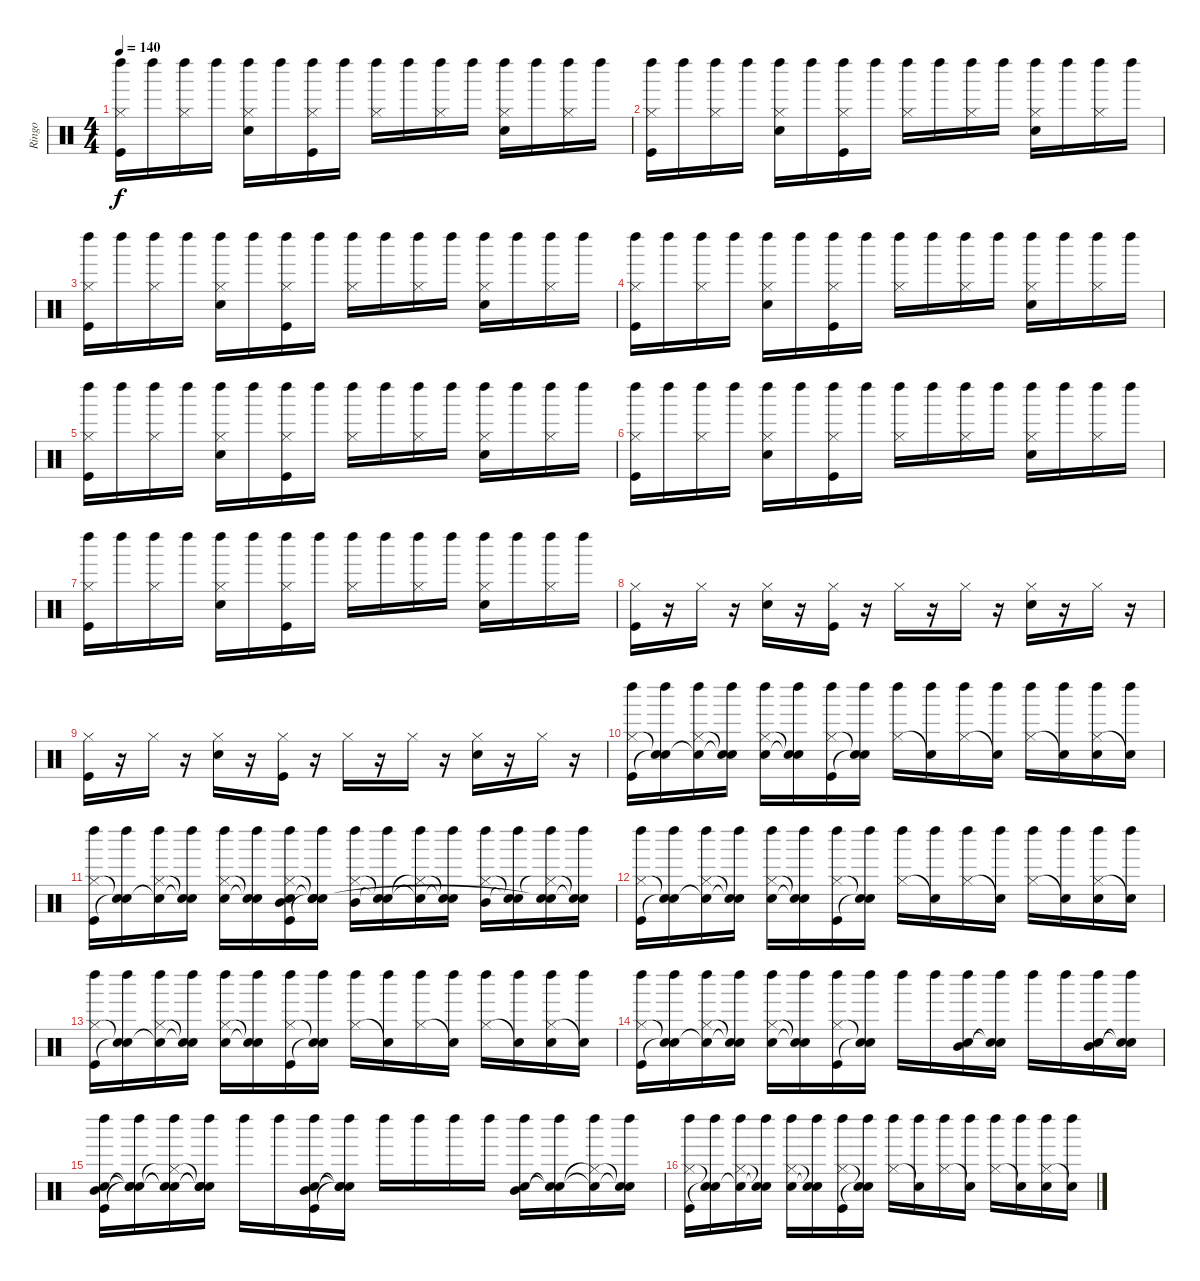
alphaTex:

\track ("Ringo" "Ringo") {instrument percussion}
\staff {score}
\articulation defaults
\ts (4 4)
\tempo 140
\clef neutral
\ks c
("Left Maraca (hit)" "Hi-Hat (closed)" "Kick (hit)").16{dy f} "Left Maraca (hit)".16 ("Left Maraca (hit)" "Hi-Hat (closed)").16 "Left Maraca (hit)".16 ("Left Maraca (hit)" "Hi-Hat (closed)" "Snare (hit) 2").16 "Left Maraca (hit)".16 ("Left Maraca (hit)" "Hi-Hat (closed)" "Kick (hit)").16 "Left Maraca (hit)".16 ("Left Maraca (hit)" "Hi-Hat (closed)").16 "Left Maraca (hit)".16 ("Left Maraca (hit)" "Hi-Hat (closed)").16 "Left Maraca (hit)".16 ("Left Maraca (hit)" "Hi-Hat (closed)" "Snare (hit) 2").16 "Left Maraca (hit)".16 ("Left Maraca (hit)" "Hi-Hat (closed)").16 "Left Maraca (hit)".16 |
("Left Maraca (hit)" "Hi-Hat (closed)" "Kick (hit)").16 "Left Maraca (hit)".16 ("Left Maraca (hit)" "Hi-Hat (closed)").16 "Left Maraca (hit)".16 ("Left Maraca (hit)" "Hi-Hat (closed)" "Snare (hit) 2").16 "Left Maraca (hit)".16 ("Left Maraca (hit)" "Hi-Hat (closed)" "Kick (hit)").16 "Left Maraca (hit)".16 ("Left Maraca (hit)" "Hi-Hat (closed)").16 "Left Maraca (hit)".16 ("Left Maraca (hit)" "Hi-Hat (closed)").16 "Left Maraca (hit)".16 ("Left Maraca (hit)" "Hi-Hat (closed)" "Snare (hit) 2").16 "Left Maraca (hit)".16 ("Left Maraca (hit)" "Hi-Hat (closed)").16 "Left Maraca (hit)".16 |
("Left Maraca (hit)" "Hi-Hat (closed)" "Kick (hit)").16 "Left Maraca (hit)".16 ("Left Maraca (hit)" "Hi-Hat (closed)").16 "Left Maraca (hit)".16 ("Left Maraca (hit)" "Hi-Hat (closed)" "Snare (hit) 2").16 "Left Maraca (hit)".16 ("Left Maraca (hit)" "Hi-Hat (closed)" "Kick (hit)").16 "Left Maraca (hit)".16 ("Left Maraca (hit)" "Hi-Hat (closed)").16 "Left Maraca (hit)".16 ("Left Maraca (hit)" "Hi-Hat (closed)").16 "Left Maraca (hit)".16 ("Left Maraca (hit)" "Hi-Hat (closed)" "Snare (hit) 2").16 "Left Maraca (hit)".16 ("Left Maraca (hit)" "Hi-Hat (closed)").16 "Left Maraca (hit)".16 |
("Left Maraca (hit)" "Hi-Hat (closed)" "Kick (hit)").16 "Left Maraca (hit)".16 ("Left Maraca (hit)" "Hi-Hat (closed)").16 "Left Maraca (hit)".16 ("Left Maraca (hit)" "Hi-Hat (closed)" "Snare (hit) 2").16 "Left Maraca (hit)".16 ("Left Maraca (hit)" "Hi-Hat (closed)" "Kick (hit)").16 "Left Maraca (hit)".16 ("Left Maraca (hit)" "Hi-Hat (closed)").16 "Left Maraca (hit)".16 ("Left Maraca (hit)" "Hi-Hat (closed)").16 "Left Maraca (hit)".16 ("Left Maraca (hit)" "Hi-Hat (closed)" "Snare (hit) 2").16 "Left Maraca (hit)".16 ("Left Maraca (hit)" "Hi-Hat (closed)").16 "Left Maraca (hit)".16 |
("Left Maraca (hit)" "Hi-Hat (closed)" "Kick (hit)").16 "Left Maraca (hit)".16 ("Left Maraca (hit)" "Hi-Hat (closed)").16 "Left Maraca (hit)".16 ("Left Maraca (hit)" "Hi-Hat (closed)" "Snare (hit) 2").16 "Left Maraca (hit)".16 ("Left Maraca (hit)" "Hi-Hat (closed)" "Kick (hit)").16 "Left Maraca (hit)".16 ("Left Maraca (hit)" "Hi-Hat (closed)").16 "Left Maraca (hit)".16 ("Left Maraca (hit)" "Hi-Hat (closed)").16 "Left Maraca (hit)".16 ("Left Maraca (hit)" "Hi-Hat (closed)" "Snare (hit) 2").16 "Left Maraca (hit)".16 ("Left Maraca (hit)" "Hi-Hat (closed)").16 "Left Maraca (hit)".16 |
("Left Maraca (hit)" "Hi-Hat (closed)" "Kick (hit)").16 "Left Maraca (hit)".16 ("Left Maraca (hit)" "Hi-Hat (closed)").16 "Left Maraca (hit)".16 ("Left Maraca (hit)" "Hi-Hat (closed)" "Snare (hit) 2").16 "Left Maraca (hit)".16 ("Left Maraca (hit)" "Hi-Hat (closed)" "Kick (hit)").16 "Left Maraca (hit)".16 ("Left Maraca (hit)" "Hi-Hat (closed)").16 "Left Maraca (hit)".16 ("Left Maraca (hit)" "Hi-Hat (closed)").16 "Left Maraca (hit)".16 ("Left Maraca (hit)" "Hi-Hat (closed)" "Snare (hit) 2").16 "Left Maraca (hit)".16 ("Left Maraca (hit)" "Hi-Hat (closed)").16 "Left Maraca (hit)".16 |
("Left Maraca (hit)" "Hi-Hat (closed)" "Kick (hit)").16 "Left Maraca (hit)".16 ("Left Maraca (hit)" "Hi-Hat (closed)").16 "Left Maraca (hit)".16 ("Left Maraca (hit)" "Hi-Hat (closed)" "Snare (hit) 2").16 "Left Maraca (hit)".16 ("Left Maraca (hit)" "Hi-Hat (closed)" "Kick (hit)").16 "Left Maraca (hit)".16 ("Left Maraca (hit)" "Hi-Hat (closed)").16 "Left Maraca (hit)".16 ("Left Maraca (hit)" "Hi-Hat (closed)").16 "Left Maraca (hit)".16 ("Left Maraca (hit)" "Hi-Hat (closed)" "Snare (hit) 2").16 "Left Maraca (hit)".16 ("Left Maraca (hit)" "Hi-Hat (closed)").16 "Left Maraca (hit)".16 |
("Hi-Hat (closed)" "Kick (hit)").16 r.16 "Hi-Hat (closed)".16 r.16 ("Hi-Hat (closed)" "Snare (hit) 2").16 r.16 ("Hi-Hat (closed)" "Kick (hit)").16 r.16 "Hi-Hat (closed)".16 r.16 "Hi-Hat (closed)".16 r.16 ("Hi-Hat (closed)" "Snare (hit) 2").16 r.16 "Hi-Hat (closed)".16 r.16 |
("Hi-Hat (closed)" "Kick (hit)").16 r.16 "Hi-Hat (closed)".16 r.16 ("Hi-Hat (closed)" "Snare (hit) 2").16 r.16 ("Hi-Hat (closed)" "Kick (hit)").16 r.16 "Hi-Hat (closed)".16 r.16 "Hi-Hat (closed)".16 r.16 ("Hi-Hat (closed)" "Snare (hit) 2").16 r.16 "Hi-Hat (closed)".16 r.16 |
("Left Maraca (hit)" "Hi-Hat (closed)" "Kick (hit)").16 ("Left Maraca (hit)" "Snare (hit)"{t} "Snare (hit)"{t}).16 ("Left Maraca (hit)" "Hi-Hat (closed)" "Snare (hit)"{t}).16 ("Left Maraca (hit)" "Snare (hit)"{t} "Snare (hit)"{t}).16 ("Left Maraca (hit)" "Hi-Hat (closed)" "Snare (hit) 2").16 ("Left Maraca (hit)" "Snare (hit)"{t} "Snare (hit)"{t}).16 ("Left Maraca (hit)" "Hi-Hat (closed)" "Kick (hit)").16 ("Left Maraca (hit)" "Snare (hit)"{t} "Snare (hit)"{t}).16 ("Left Maraca (hit)" "Hi-Hat (closed)").16 ("Left Maraca (hit)" "Snare (hit)"{t}).16 ("Left Maraca (hit)" "Hi-Hat (closed)").16 ("Left Maraca (hit)" "Snare (hit)"{t}).16 ("Left Maraca (hit)" "Hi-Hat (closed)").16 ("Left Maraca (hit)" "Snare (hit)"{t}).16 ("Left Maraca (hit)" "Hi-Hat (closed)" "Snare (hit) 2").16 ("Left Maraca (hit)" "Snare (hit)"{t}).16 |
("Left Maraca (hit)" "Hi-Hat (closed)" "Kick (hit)").16 ("Left Maraca (hit)" "Snare (hit)"{t} "Snare (hit)"{t}).16 ("Left Maraca (hit)" "Hi-Hat (closed)" "Snare (hit)"{t}).16 ("Left Maraca (hit)" "Snare (hit)"{t} "Snare (hit)"{t}).16 ("Left Maraca (hit)" "Hi-Hat (closed)" "Snare (hit) 2").16 ("Left Maraca (hit)" "Snare (hit)"{t} "Snare (hit)"{t}).16 ("Left Maraca (hit)" "Hi-Hat (closed)" "Snare (hit) 2" "Kick (hit)" "Mid Tom (hit)").16 ("Left Maraca (hit)" "Snare (hit)"{t} "Snare (hit)"{t} "Snare (hit)"{t}).16 ("Left Maraca (hit)" "Hi-Hat (closed)" "Mid Tom (hit)").16 ("Left Maraca (hit)" "Snare (hit)"{t} "Snare (hit)"{t}).16 ("Left Maraca (hit)" "Hi-Hat (closed)"{t} "Snare (hit)"{t}).16 ("Left Maraca (hit)" "Snare (hit)"{t} "Snare (hit)"{t}).16 ("Left Maraca (hit)" "Hi-Hat (closed)" "Mid Tom (hit)").16 ("Left Maraca (hit)" "Snare (hit)"{t} "Snare (hit)"{t}).16 ("Left Maraca (hit)" "Hi-Hat (closed)"{t} "Snare (hit) 2" "Snare (hit)"{t}).16 ("Left Maraca (hit)" "Snare (hit)"{t} "Snare (hit)"{t}).16 |
("Left Maraca (hit)" "Hi-Hat (closed)" "Kick (hit)").16 ("Left Maraca (hit)" "Snare (hit)"{t} "Snare (hit)"{t}).16 ("Left Maraca (hit)" "Hi-Hat (closed)" "Snare (hit)"{t}).16 ("Left Maraca (hit)" "Snare (hit)"{t} "Snare (hit)"{t}).16 ("Left Maraca (hit)" "Hi-Hat (closed)" "Snare (hit) 2").16 ("Left Maraca (hit)" "Snare (hit)"{t} "Snare (hit)"{t}).16 ("Left Maraca (hit)" "Hi-Hat (closed)" "Kick (hit)").16 ("Left Maraca (hit)" "Snare (hit)"{t} "Snare (hit)"{t}).16 ("Left Maraca (hit)" "Hi-Hat (closed)").16 ("Left Maraca (hit)" "Snare (hit)"{t}).16 ("Left Maraca (hit)" "Hi-Hat (closed)").16 ("Left Maraca (hit)" "Snare (hit)"{t}).16 ("Left Maraca (hit)" "Hi-Hat (closed)").16 ("Left Maraca (hit)" "Snare (hit)"{t}).16 ("Left Maraca (hit)" "Hi-Hat (closed)" "Snare (hit) 2").16 ("Left Maraca (hit)" "Snare (hit)"{t}).16 |
("Left Maraca (hit)" "Hi-Hat (closed)" "Kick (hit)").16 ("Left Maraca (hit)" "Snare (hit)"{t} "Snare (hit)"{t}).16 ("Left Maraca (hit)" "Hi-Hat (closed)" "Snare (hit)"{t}).16 ("Left Maraca (hit)" "Snare (hit)"{t} "Snare (hit)"{t}).16 ("Left Maraca (hit)" "Hi-Hat (closed)" "Snare (hit) 2").16 ("Left Maraca (hit)" "Snare (hit)"{t} "Snare (hit)"{t}).16 ("Left Maraca (hit)" "Hi-Hat (closed)" "Kick (hit)").16 ("Left Maraca (hit)" "Snare (hit)"{t} "Snare (hit)"{t}).16 ("Left Maraca (hit)" "Hi-Hat (closed)").16 ("Left Maraca (hit)" "Snare (hit)"{t}).16 ("Left Maraca (hit)" "Hi-Hat (closed)").16 ("Left Maraca (hit)" "Snare (hit)"{t}).16 ("Left Maraca (hit)" "Hi-Hat (closed)").16 ("Left Maraca (hit)" "Snare (hit)"{t}).16 ("Left Maraca (hit)" "Hi-Hat (closed)" "Snare (hit) 2").16 ("Left Maraca (hit)" "Snare (hit)"{t}).16 |
("Left Maraca (hit)" "Hi-Hat (closed)" "Kick (hit)").16 ("Left Maraca (hit)" "Snare (hit)"{t} "Snare (hit)"{t}).16 ("Left Maraca (hit)" "Hi-Hat (closed)" "Snare (hit)"{t}).16 ("Left Maraca (hit)" "Snare (hit)"{t} "Snare (hit)"{t}).16 ("Left Maraca (hit)" "Hi-Hat (closed)" "Snare (hit) 2").16 ("Left Maraca (hit)" "Snare (hit)"{t} "Snare (hit)"{t}).16 ("Left Maraca (hit)" "Hi-Hat (closed)" "Kick (hit)").16 ("Left Maraca (hit)" "Snare (hit)"{t} "Snare (hit)"{t}).16 "Left Maraca (hit)".16 "Left Maraca (hit)".16 ("Left Maraca (hit)" "Mid Tom (hit)" "Snare (hit) 2").16 ("Left Maraca (hit)" "Snare (hit)"{t} "Snare (hit)"{t}).16 "Left Maraca (hit)".16 "Left Maraca (hit)".16 ("Left Maraca (hit)" "Mid Tom (hit)" "Snare (hit) 2").16 ("Left Maraca (hit)" "Snare (hit)"{t} "Snare (hit)"{t}).16 |
("Left Maraca (hit)" "Mid Tom (hit)" "Snare (hit) 2" "Kick (hit)").16 ("Left Maraca (hit)" "Snare (hit)"{t} "Snare (hit)"{t} "Snare (hit)"{t}).16 ("Left Maraca (hit)" "Hi-Hat (closed)"{t} "Snare (hit)"{t} "Snare (hit)"{t}).16 ("Left Maraca (hit)" "Snare (hit)"{t} "Snare (hit)"{t} "Snare (hit)"{t}).16 "Left Maraca (hit)".16 "Left Maraca (hit)".16 ("Left Maraca (hit)" "Mid Tom (hit)" "Snare (hit) 2" "Kick (hit)").16 ("Left Maraca (hit)" "Snare (hit)"{t} "Snare (hit)"{t} "Snare (hit)"{t}).16 "Left Maraca (hit)".16 "Left Maraca (hit)".16 "Left Maraca (hit)".16 "Left Maraca (hit)".16 ("Left Maraca (hit)" "Mid Tom (hit)" "Snare (hit) 2").16 ("Left Maraca (hit)" "Snare (hit)"{t} "Snare (hit)"{t}).16 ("Left Maraca (hit)" "Hi-Hat (closed)"{t} "Snare (hit) 2"{t}).16 ("Left Maraca (hit)" "Snare (hit)"{t} "Snare (hit)"{t}).16 |
("Left Maraca (hit)" "Hi-Hat (closed)" "Kick (hit)").16 ("Left Maraca (hit)" "Snare (hit)"{t} "Snare (hit)"{t}).16 ("Left Maraca (hit)" "Hi-Hat (closed)" "Snare (hit)"{t}).16 ("Left Maraca (hit)" "Snare (hit)"{t} "Snare (hit)"{t}).16 ("Left Maraca (hit)" "Hi-Hat (closed)" "Snare (hit) 2").16 ("Left Maraca (hit)" "Snare (hit)"{t} "Snare (hit)"{t}).16 ("Left Maraca (hit)" "Hi-Hat (closed)" "Kick (hit)").16 ("Left Maraca (hit)" "Snare (hit)"{t} "Snare (hit)"{t}).16 ("Left Maraca (hit)" "Hi-Hat (closed)").16 ("Left Maraca (hit)" "Snare (hit)"{t}).16 ("Left Maraca (hit)" "Hi-Hat (closed)").16 ("Left Maraca (hit)" "Snare (hit)"{t}).16 ("Left Maraca (hit)" "Hi-Hat (closed)").16 ("Left Maraca (hit)" "Snare (hit)"{t}).16 ("Left Maraca (hit)" "Hi-Hat (closed)" "Snare (hit) 2").16 ("Left Maraca (hit)" "Snare (hit)"{t}).16
